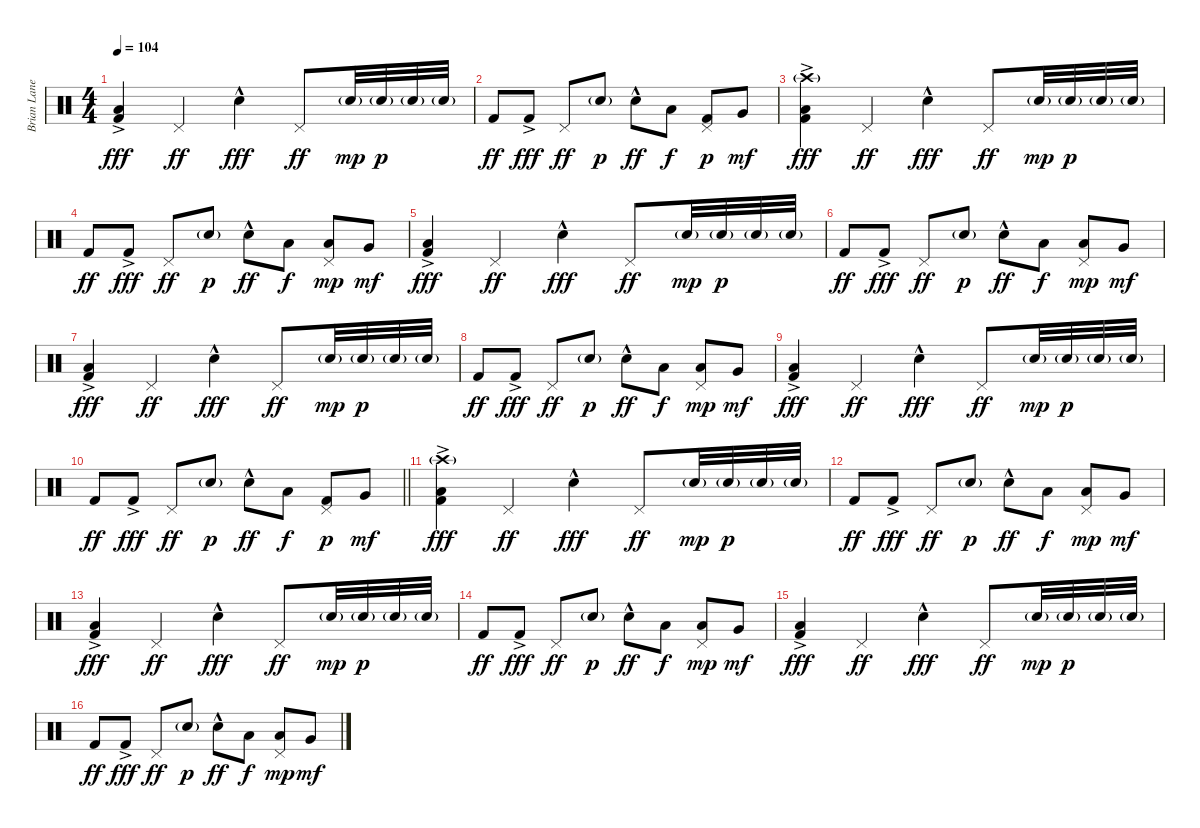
\track ("Brian Lane - Drums" "Brian Lane") {instrument percussion}
\staff {score}
\articulation defaults
\ts (4 4)
\tempo 104
\clef neutral
\ks c
("Low Floor Tom (hit)" "Kick (hit) 2"{ac}).4{dy fff} "Pedal Hi-Hat (hit)".4{dy ff} "Snare (hit) 2"{hac}.4{dy fff} "Pedal Hi-Hat (hit)".8{dy ff} "Snare (hit) 2"{g}.32{dy mp} "Snare (hit) 2"{g}.32{dy p} "Snare (hit) 2"{g}.32 "Snare (hit) 2"{g}.32 |
"Kick (hit) 2".8{dy ff} "Kick (hit) 2"{ac}.8{dy fff} "Pedal Hi-Hat (hit)".8{dy ff} "Snare (hit) 2"{g}.8{dy p} "Snare (hit) 2"{hac}.8{dy ff} "Low Tom (hit)".8{dy f} ("Pedal Hi-Hat (hit)" "Kick (hit) 2").8{dy p} "Very Low Tom (hit)".8{dy mf} |
("Crash high (hit)"{g} "Low Floor Tom (hit)" "Kick (hit) 2"{ac}).4{dy fff} "Pedal Hi-Hat (hit)".4{dy ff} "Snare (hit) 2"{hac}.4{dy fff} "Pedal Hi-Hat (hit)".8{dy ff} "Snare (hit) 2"{g}.32{dy mp} "Snare (hit) 2"{g}.32{dy p} "Snare (hit) 2"{g}.32 "Snare (hit) 2"{g}.32 |
"Kick (hit) 2".8{dy ff} "Kick (hit) 2"{ac}.8{dy fff} "Pedal Hi-Hat (hit)".8{dy ff} "Snare (hit) 2"{g}.8{dy p} "Snare (hit) 2"{hac}.8{dy ff} "Low Tom (hit)".8{dy f} ("Pedal Hi-Hat (hit)" "Low Tom (hit)").8{dy mp} "Very Low Tom (hit)".8{dy mf} |
("Low Floor Tom (hit)" "Kick (hit) 2"{ac}).4{dy fff} "Pedal Hi-Hat (hit)".4{dy ff} "Snare (hit) 2"{hac}.4{dy fff} "Pedal Hi-Hat (hit)".8{dy ff} "Snare (hit) 2"{g}.32{dy mp} "Snare (hit) 2"{g}.32{dy p} "Snare (hit) 2"{g}.32 "Snare (hit) 2"{g}.32 |
"Kick (hit) 2".8{dy ff} "Kick (hit) 2"{ac}.8{dy fff} "Pedal Hi-Hat (hit)".8{dy ff} "Snare (hit) 2"{g}.8{dy p} "Snare (hit) 2"{hac}.8{dy ff} "Low Tom (hit)".8{dy f} ("Pedal Hi-Hat (hit)" "Low Tom (hit)").8{dy mp} "Very Low Tom (hit)".8{dy mf} |
("Low Floor Tom (hit)" "Kick (hit) 2"{ac}).4{dy fff} "Pedal Hi-Hat (hit)".4{dy ff} "Snare (hit) 2"{hac}.4{dy fff} "Pedal Hi-Hat (hit)".8{dy ff} "Snare (hit) 2"{g}.32{dy mp} "Snare (hit) 2"{g}.32{dy p} "Snare (hit) 2"{g}.32 "Snare (hit) 2"{g}.32 |
"Kick (hit) 2".8{dy ff} "Kick (hit) 2"{ac}.8{dy fff} "Pedal Hi-Hat (hit)".8{dy ff} "Snare (hit) 2"{g}.8{dy p} "Snare (hit) 2"{hac}.8{dy ff} "Low Tom (hit)".8{dy f} ("Pedal Hi-Hat (hit)" "Low Tom (hit)").8{dy mp} "Very Low Tom (hit)".8{dy mf} |
("Low Floor Tom (hit)" "Kick (hit) 2"{ac}).4{dy fff} "Pedal Hi-Hat (hit)".4{dy ff} "Snare (hit) 2"{hac}.4{dy fff} "Pedal Hi-Hat (hit)".8{dy ff} "Snare (hit) 2"{g}.32{dy mp} "Snare (hit) 2"{g}.32{dy p} "Snare (hit) 2"{g}.32 "Snare (hit) 2"{g}.32 |
\barLineRight lightlight "Kick (hit) 2".8{dy ff} "Kick (hit) 2"{ac}.8{dy fff} "Pedal Hi-Hat (hit)".8{dy ff} "Snare (hit) 2"{g}.8{dy p} "Snare (hit) 2"{hac}.8{dy ff} "Low Tom (hit)".8{dy f}
("Pedal Hi-Hat (hit)" "Kick (hit) 2").8{dy p} "Very Low Tom (hit)".8{dy mf} |
("Crash high (hit)"{g} "Low Floor Tom (hit)" "Kick (hit) 2"{ac}).4{dy fff} "Pedal Hi-Hat (hit)".4{dy ff} "Snare (hit) 2"{hac}.4{dy fff} "Pedal Hi-Hat (hit)".8{dy ff} "Snare (hit) 2"{g}.32{dy mp} "Snare (hit) 2"{g}.32{dy p} "Snare (hit) 2"{g}.32 "Snare (hit) 2"{g}.32 |
"Kick (hit) 2".8{dy ff} "Kick (hit) 2"{ac}.8{dy fff} "Pedal Hi-Hat (hit)".8{dy ff} "Snare (hit) 2"{g}.8{dy p} "Snare (hit) 2"{hac}.8{dy ff} "Low Tom (hit)".8{dy f} ("Pedal Hi-Hat (hit)" "Low Tom (hit)").8{dy mp} "Very Low Tom (hit)".8{dy mf} |
("Low Floor Tom (hit)" "Kick (hit) 2"{ac}).4{dy fff} "Pedal Hi-Hat (hit)".4{dy ff} "Snare (hit) 2"{hac}.4{dy fff} "Pedal Hi-Hat (hit)".8{dy ff} "Snare (hit) 2"{g}.32{dy mp} "Snare (hit) 2"{g}.32{dy p} "Snare (hit) 2"{g}.32 "Snare (hit) 2"{g}.32 |
"Kick (hit) 2".8{dy ff} "Kick (hit) 2"{ac}.8{dy fff} "Pedal Hi-Hat (hit)".8{dy ff} "Snare (hit) 2"{g}.8{dy p} "Snare (hit) 2"{hac}.8{dy ff} "Low Tom (hit)".8{dy f} ("Pedal Hi-Hat (hit)" "Low Tom (hit)").8{dy mp} "Very Low Tom (hit)".8{dy mf} |
("Low Floor Tom (hit)" "Kick (hit) 2"{ac}).4{dy fff} "Pedal Hi-Hat (hit)".4{dy ff} "Snare (hit) 2"{hac}.4{dy fff} "Pedal Hi-Hat (hit)".8{dy ff} "Snare (hit) 2"{g}.32{dy mp} "Snare (hit) 2"{g}.32{dy p} "Snare (hit) 2"{g}.32 "Snare (hit) 2"{g}.32 |
"Kick (hit) 2".8{dy ff} "Kick (hit) 2"{ac}.8{dy fff} "Pedal Hi-Hat (hit)".8{dy ff} "Snare (hit) 2"{g}.8{dy p} "Snare (hit) 2"{hac}.8{dy ff} "Low Tom (hit)".8{dy f} ("Pedal Hi-Hat (hit)" "Low Tom (hit)").8{dy mp} "Very Low Tom (hit)".8{dy mf}
